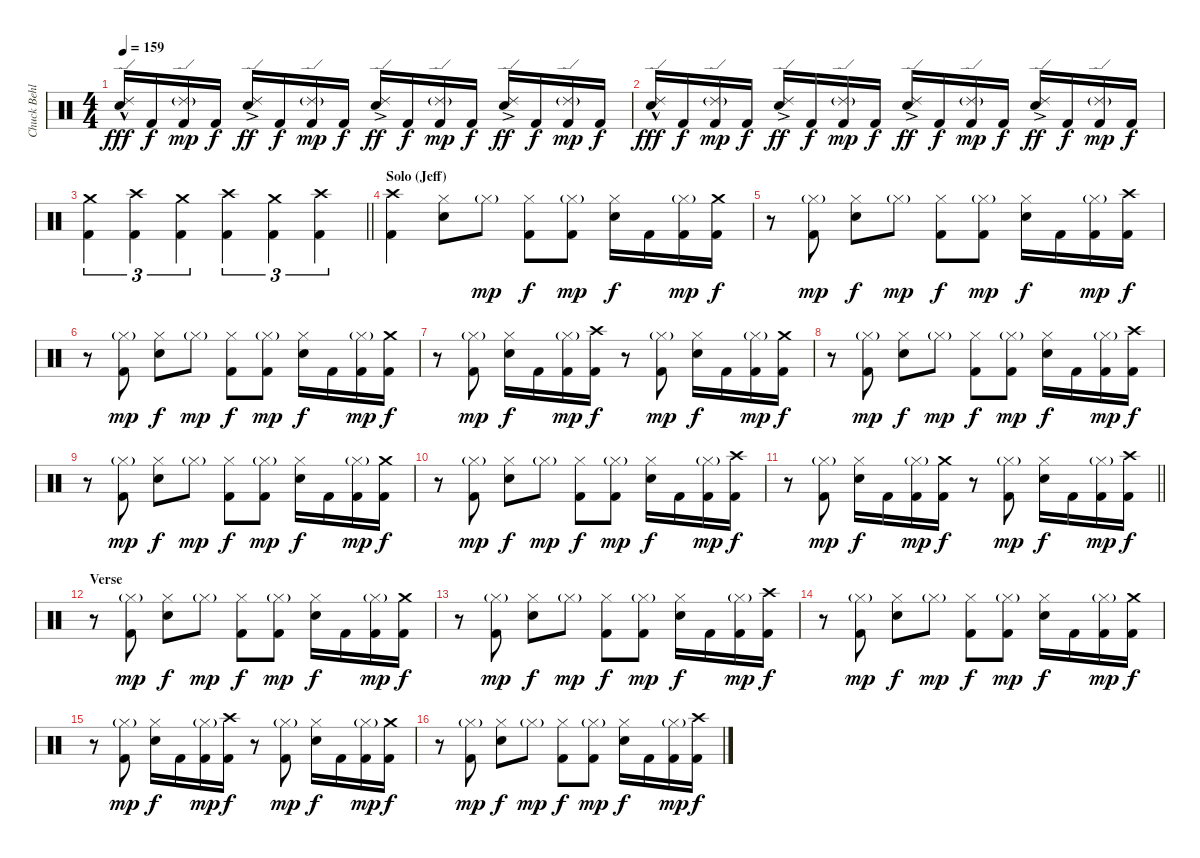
\track ("Chuck Behler" "Chuck Behl") {instrument percussion}
\staff {score}
\articulation defaults
\ts (4 4)
\tempo 159
\clef neutral
\ks c
("Ride (edge) 2"{hac} "Snare (hit) 2").16{dy fff} "Kick (hit) 2".16{dy f} ("Ride (edge) 2"{g} "Kick (hit) 2").16{dy mp} "Kick (hit) 2".16{dy f} ("Ride (edge) 2"{ac} "Snare (hit) 2").16{dy ff} "Kick (hit) 2".16{dy f} ("Ride (edge) 2"{g} "Kick (hit) 2").16{dy mp} "Kick (hit) 2".16{dy f} ("Ride (edge) 2"{ac} "Snare (hit) 2").16{dy ff} "Kick (hit) 2".16{dy f} ("Ride (edge) 2"{g} "Kick (hit) 2").16{dy mp} "Kick (hit) 2".16{dy f} ("Ride (edge) 2"{ac} "Snare (hit) 2").16{dy ff} "Kick (hit) 2".16{dy f} ("Ride (edge) 2"{g} "Kick (hit) 2").16{dy mp} "Kick (hit) 2".16{dy f} |
("Ride (edge) 2"{hac} "Snare (hit) 2").16{dy fff} "Kick (hit) 2".16{dy f} ("Ride (edge) 2"{g} "Kick (hit) 2").16{dy mp} "Kick (hit) 2".16{dy f} ("Ride (edge) 2"{ac} "Snare (hit) 2").16{dy ff} "Kick (hit) 2".16{dy f} ("Ride (edge) 2"{g} "Kick (hit) 2").16{dy mp} "Kick (hit) 2".16{dy f} ("Ride (edge) 2"{ac} "Snare (hit) 2").16{dy ff} "Kick (hit) 2".16{dy f} ("Ride (edge) 2"{g} "Kick (hit) 2").16{dy mp} "Kick (hit) 2".16{dy f} ("Ride (edge) 2"{ac} "Snare (hit) 2").16{dy ff} "Kick (hit) 2".16{dy f} ("Ride (edge) 2"{g} "Kick (hit) 2").16{dy mp} "Kick (hit) 2".16{dy f} |
\barLineRight lightlight
("Crash medium (hit)" "Kick (hit) 2").4{tu (3 2)} ("Crash high (hit)" "Kick (hit) 2").4{tu (3 2)} ("Crash medium (hit)" "Kick (hit) 2").4{tu (3 2)} ("Crash high (hit)" "Kick (hit) 2").4{tu (3 2)} ("Crash medium (hit)" "Kick (hit) 2").4{tu (3 2)} ("Crash high (hit)" "Kick (hit) 2").4{tu (3 2)} |
\section ("" "Solo (Jeff)")
("Crash high (hit)" "Kick (hit) 2").4 ("Hi-Hat (closed)" "Snare (hit) 2").8 "Hi-Hat (closed)"{g}.8{dy mp} ("Hi-Hat (closed)" "Kick (hit) 2").8{dy f} ("Hi-Hat (closed)"{g} "Kick (hit) 2").8{dy mp} ("Hi-Hat (closed)" "Snare (hit) 2").16{dy f} "Kick (hit) 2".16 ("Hi-Hat (closed)"{g} "Kick (hit) 2").16{dy mp} ("Crash medium (hit)" "Kick (hit) 2").16{dy f} |
r.8 ("Hi-Hat (closed)"{g} "Kick (hit) 2").8{dy mp} ("Hi-Hat (closed)" "Snare (hit) 2").8{dy f} "Hi-Hat (closed)"{g}.8{dy mp} ("Hi-Hat (closed)" "Kick (hit) 2").8{dy f} ("Hi-Hat (closed)"{g} "Kick (hit) 2").8{dy mp} ("Hi-Hat (closed)" "Snare (hit) 2").16{dy f} "Kick (hit) 2".16 ("Hi-Hat (closed)"{g} "Kick (hit) 2").16{dy mp} ("Crash high (hit)" "Kick (hit) 2").16{dy f} |
r.8 ("Hi-Hat (closed)"{g} "Kick (hit) 2").8{dy mp} ("Hi-Hat (closed)" "Snare (hit) 2").8{dy f} "Hi-Hat (closed)"{g}.8{dy mp} ("Hi-Hat (closed)" "Kick (hit) 2").8{dy f} ("Hi-Hat (closed)"{g} "Kick (hit) 2").8{dy mp} ("Hi-Hat (closed)" "Snare (hit) 2").16{dy f} "Kick (hit) 2".16 ("Hi-Hat (closed)"{g} "Kick (hit) 2").16{dy mp} ("Crash medium (hit)" "Kick (hit) 2").16{dy f} |
r.8 ("Hi-Hat (closed)"{g} "Kick (hit) 2").8{dy mp} ("Hi-Hat (closed)" "Snare (hit) 2").16{dy f} "Kick (hit) 2".16 ("Hi-Hat (closed)"{g} "Kick (hit) 2").16{dy mp} ("Crash high (hit)" "Kick (hit) 2").16{dy f} r.8 ("Hi-Hat (closed)"{g} "Kick (hit) 2").8{dy mp} ("Hi-Hat (closed)" "Snare (hit) 2").16{dy f} "Kick (hit) 2".16 ("Hi-Hat (closed)"{g} "Kick (hit) 2").16{dy mp} ("Crash medium (hit)" "Kick (hit) 2").16{dy f} |
r.8 ("Hi-Hat (closed)"{g} "Kick (hit) 2").8{dy mp} ("Hi-Hat (closed)" "Snare (hit) 2").8{dy f} "Hi-Hat (closed)"{g}.8{dy mp} ("Hi-Hat (closed)" "Kick (hit) 2").8{dy f} ("Hi-Hat (closed)"{g} "Kick (hit) 2").8{dy mp} ("Hi-Hat (closed)" "Snare (hit) 2").16{dy f} "Kick (hit) 2".16 ("Hi-Hat (closed)"{g} "Kick (hit) 2").16{dy mp} ("Crash high (hit)" "Kick (hit) 2").16{dy f} |
r.8 ("Hi-Hat (closed)"{g} "Kick (hit) 2").8{dy mp} ("Hi-Hat (closed)" "Snare (hit) 2").8{dy f} "Hi-Hat (closed)"{g}.8{dy mp} ("Hi-Hat (closed)" "Kick (hit) 2").8{dy f} ("Hi-Hat (closed)"{g} "Kick (hit) 2").8{dy mp} ("Hi-Hat (closed)" "Snare (hit) 2").16{dy f} "Kick (hit) 2".16 ("Hi-Hat (closed)"{g} "Kick (hit) 2").16{dy mp} ("Crash medium (hit)" "Kick (hit) 2").16{dy f} |
r.8 ("Hi-Hat (closed)"{g} "Kick (hit) 2").8{dy mp} ("Hi-Hat (closed)" "Snare (hit) 2").8{dy f} "Hi-Hat (closed)"{g}.8{dy mp} ("Hi-Hat (closed)" "Kick (hit) 2").8{dy f} ("Hi-Hat (closed)"{g} "Kick (hit) 2").8{dy mp} ("Hi-Hat (closed)" "Snare (hit) 2").16{dy f} "Kick (hit) 2".16 ("Hi-Hat (closed)"{g} "Kick (hit) 2").16{dy mp} ("Crash high (hit)" "Kick (hit) 2").16{dy f} |
\barLineRight lightlight
r.8 ("Hi-Hat (closed)"{g} "Kick (hit) 2").8{dy mp} ("Hi-Hat (closed)" "Snare (hit) 2").16{dy f} "Kick (hit) 2".16 ("Hi-Hat (closed)"{g} "Kick (hit) 2").16{dy mp} ("Crash medium (hit)" "Kick (hit) 2").16{dy f} r.8 ("Hi-Hat (closed)"{g} "Kick (hit) 2").8{dy mp} ("Hi-Hat (closed)" "Snare (hit) 2").16{dy f} "Kick (hit) 2".16 ("Hi-Hat (closed)"{g} "Kick (hit) 2").16{dy mp} ("Crash high (hit)" "Kick (hit) 2").16{dy f} |
\section ("" "Verse")
r.8 ("Hi-Hat (closed)"{g} "Kick (hit) 2").8{dy mp} ("Hi-Hat (closed)" "Snare (hit) 2").8{dy f} "Hi-Hat (closed)"{g}.8{dy mp} ("Hi-Hat (closed)" "Kick (hit) 2").8{dy f} ("Hi-Hat (closed)"{g} "Kick (hit) 2").8{dy mp} ("Hi-Hat (closed)" "Snare (hit) 2").16{dy f} "Kick (hit) 2".16 ("Hi-Hat (closed)"{g} "Kick (hit) 2").16{dy mp} ("Crash medium (hit)" "Kick (hit) 2").16{dy f} |
r.8 ("Hi-Hat (closed)"{g} "Kick (hit) 2").8{dy mp} ("Hi-Hat (closed)" "Snare (hit) 2").8{dy f} "Hi-Hat (closed)"{g}.8{dy mp} ("Hi-Hat (closed)" "Kick (hit) 2").8{dy f} ("Hi-Hat (closed)"{g} "Kick (hit) 2").8{dy mp} ("Hi-Hat (closed)" "Snare (hit) 2").16{dy f} "Kick (hit) 2".16 ("Hi-Hat (closed)"{g} "Kick (hit) 2").16{dy mp} ("Crash high (hit)" "Kick (hit) 2").16{dy f} |
r.8 ("Hi-Hat (closed)"{g} "Kick (hit) 2").8{dy mp} ("Hi-Hat (closed)" "Snare (hit) 2").8{dy f} "Hi-Hat (closed)"{g}.8{dy mp} ("Hi-Hat (closed)" "Kick (hit) 2").8{dy f} ("Hi-Hat (closed)"{g} "Kick (hit) 2").8{dy mp} ("Hi-Hat (closed)" "Snare (hit) 2").16{dy f} "Kick (hit) 2".16 ("Hi-Hat (closed)"{g} "Kick (hit) 2").16{dy mp} ("Crash medium (hit)" "Kick (hit) 2").16{dy f} |
r.8 ("Hi-Hat (closed)"{g} "Kick (hit) 2").8{dy mp} ("Hi-Hat (closed)" "Snare (hit) 2").16{dy f} "Kick (hit) 2".16 ("Hi-Hat (closed)"{g} "Kick (hit) 2").16{dy mp} ("Crash high (hit)" "Kick (hit) 2").16{dy f} r.8 ("Hi-Hat (closed)"{g} "Kick (hit) 2").8{dy mp} ("Hi-Hat (closed)" "Snare (hit) 2").16{dy f} "Kick (hit) 2".16 ("Hi-Hat (closed)"{g} "Kick (hit) 2").16{dy mp} ("Crash medium (hit)" "Kick (hit) 2").16{dy f} |
r.8 ("Hi-Hat (closed)"{g} "Kick (hit) 2").8{dy mp} ("Hi-Hat (closed)" "Snare (hit) 2").8{dy f} "Hi-Hat (closed)"{g}.8{dy mp} ("Hi-Hat (closed)" "Kick (hit) 2").8{dy f} ("Hi-Hat (closed)"{g} "Kick (hit) 2").8{dy mp} ("Hi-Hat (closed)" "Snare (hit) 2").16{dy f} "Kick (hit) 2".16 ("Hi-Hat (closed)"{g} "Kick (hit) 2").16{dy mp} ("Crash high (hit)" "Kick (hit) 2").16{dy f}
